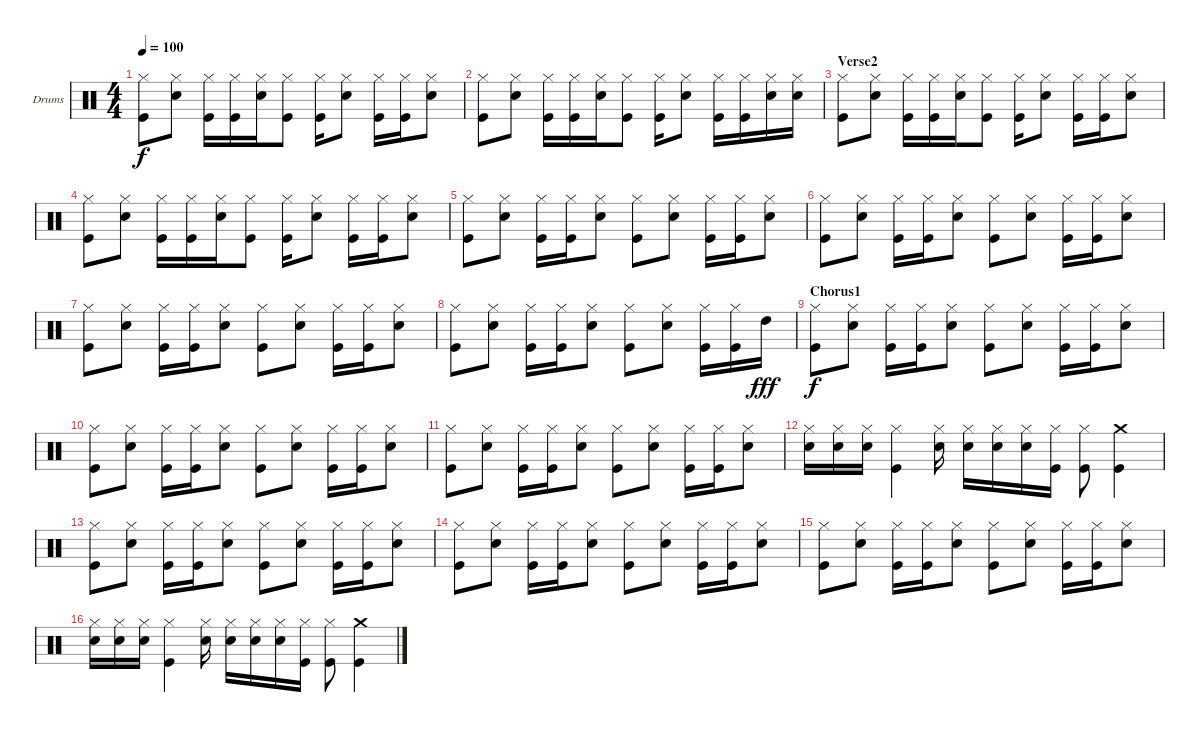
\defaultSystemsLayout 4
\bracketExtendMode groupsimilarinstruments
\firstSystemTrackNameOrientation horizontal
\otherSystemsTrackNameOrientation horizontal
\track ("Drumkit" "Drums") {instrument percussion}
\staff {score}
\articulation defaults
\ts (4 4)
\tempo 100
\clef neutral
\scale
0.333333
\ks c
("Hi-Hat (closed)" "Kick (hit)").8{dy f} ("Hi-Hat (closed)" "Snare (hit) 2").8 ("Hi-Hat (closed)" "Kick (hit)").16 ("Hi-Hat (closed)" "Kick (hit)").16 ("Hi-Hat (closed)" "Snare (hit) 2").16 ("Hi-Hat (closed)" "Kick (hit)").8 ("Hi-Hat (closed)" "Kick (hit)").16 ("Hi-Hat (closed)" "Snare (hit) 2").8 ("Hi-Hat (closed)" "Kick (hit)").16 ("Hi-Hat (closed)" "Kick (hit)").16 ("Hi-Hat (closed)" "Snare (hit) 2").8 |
\scale
0.333333 ("Hi-Hat (closed)" "Kick (hit)").8 ("Hi-Hat (closed)" "Snare (hit) 2").8 ("Hi-Hat (closed)" "Kick (hit)").16 ("Hi-Hat (closed)" "Kick (hit)").16 ("Hi-Hat (closed)" "Snare (hit) 2").16 ("Hi-Hat (closed)" "Kick (hit)").8 ("Hi-Hat (closed)" "Kick (hit)").16 ("Hi-Hat (closed)" "Snare (hit) 2").8 ("Hi-Hat (closed)" "Kick (hit)").16 ("Hi-Hat (closed)" "Kick (hit)").16 ("Hi-Hat (closed)" "Snare (hit) 2").16 ("Hi-Hat (closed)" "Snare (hit) 2").16 |
\section ("" "Verse2")
\scale
0.333333 ("Hi-Hat (closed)" "Kick (hit)").8 ("Hi-Hat (closed)" "Snare (hit) 2").8 ("Hi-Hat (closed)" "Kick (hit)").16 ("Hi-Hat (closed)" "Kick (hit)").16 ("Hi-Hat (closed)" "Snare (hit) 2").16 ("Hi-Hat (closed)" "Kick (hit)").8 ("Hi-Hat (closed)" "Kick (hit)").16 ("Hi-Hat (closed)" "Snare (hit) 2").8 ("Hi-Hat (closed)" "Kick (hit)").16 ("Hi-Hat (closed)" "Kick (hit)").16 ("Hi-Hat (closed)" "Snare (hit) 2").8 |
\scale
0.333333 ("Hi-Hat (closed)" "Kick (hit)").8 ("Hi-Hat (closed)" "Snare (hit) 2").8 ("Hi-Hat (closed)" "Kick (hit)").16 ("Hi-Hat (closed)" "Kick (hit)").16 ("Hi-Hat (closed)" "Snare (hit) 2").16 ("Hi-Hat (closed)" "Kick (hit)").8 ("Hi-Hat (closed)" "Kick (hit)").16 ("Hi-Hat (closed)" "Snare (hit) 2").8 ("Hi-Hat (closed)" "Kick (hit)").16 ("Hi-Hat (closed)" "Kick (hit)").16 ("Hi-Hat (closed)" "Snare (hit) 2").8 |
\scale
0.333333 ("Hi-Hat (closed)" "Kick (hit)").8 ("Hi-Hat (closed)" "Snare (hit) 2").8 ("Hi-Hat (closed)" "Kick (hit)").16 ("Hi-Hat (closed)" "Kick (hit)").16 ("Hi-Hat (closed)" "Snare (hit) 2").8 ("Hi-Hat (closed)" "Kick (hit)").8 ("Hi-Hat (closed)" "Snare (hit) 2").8 ("Hi-Hat (closed)" "Kick (hit)").16 ("Hi-Hat (closed)" "Kick (hit)").16 ("Hi-Hat (closed)" "Snare (hit) 2").8 |
\scale
0.333333 ("Hi-Hat (closed)" "Kick (hit)").8 ("Hi-Hat (closed)" "Snare (hit) 2").8 ("Hi-Hat (closed)" "Kick (hit)").16 ("Hi-Hat (closed)" "Kick (hit)").16 ("Hi-Hat (closed)" "Snare (hit) 2").8 ("Hi-Hat (closed)" "Kick (hit)").8 ("Hi-Hat (closed)" "Snare (hit) 2").8 ("Hi-Hat (closed)" "Kick (hit)").16 ("Hi-Hat (closed)" "Kick (hit)").16 ("Hi-Hat (closed)" "Snare (hit) 2").8 |
\scale
0.333333 ("Hi-Hat (closed)" "Kick (hit)").8 ("Hi-Hat (closed)" "Snare (hit) 2").8 ("Hi-Hat (closed)" "Kick (hit)").16 ("Hi-Hat (closed)" "Kick (hit)").16 ("Hi-Hat (closed)" "Snare (hit) 2").8 ("Hi-Hat (closed)" "Kick (hit)").8 ("Hi-Hat (closed)" "Snare (hit) 2").8 ("Hi-Hat (closed)" "Kick (hit)").16 ("Hi-Hat (closed)" "Kick (hit)").16 ("Hi-Hat (closed)" "Snare (hit) 2").8 |
\scale
0.333333 ("Hi-Hat (closed)" "Kick (hit)").8 ("Hi-Hat (closed)" "Snare (hit) 2").8 ("Hi-Hat (closed)" "Kick (hit)").16 ("Hi-Hat (closed)" "Kick (hit)").16 ("Hi-Hat (closed)" "Snare (hit) 2").8 ("Hi-Hat (closed)" "Kick (hit)").8 ("Hi-Hat (closed)" "Snare (hit) 2").8 ("Hi-Hat (closed)" "Kick (hit)").16 ("Hi-Hat (closed)" "Kick (hit)").16 "High Tom (hit)".16{dy fff} |
\section ("" "Chorus1")
\scale
0.333333 ("Hi-Hat (closed)" "Kick (hit)").8{dy f} ("Hi-Hat (closed)" "Snare (hit) 2").8 ("Hi-Hat (closed)" "Kick (hit)").16 ("Hi-Hat (closed)" "Kick (hit)").16 ("Hi-Hat (closed)" "Snare (hit) 2").8 ("Hi-Hat (closed)" "Kick (hit)").8 ("Hi-Hat (closed)" "Snare (hit) 2").8 ("Hi-Hat (closed)" "Kick (hit)").16 ("Hi-Hat (closed)" "Kick (hit)").16 ("Hi-Hat (closed)" "Snare (hit) 2").8 |
\scale
0.333333 ("Hi-Hat (closed)" "Kick (hit)").8 ("Hi-Hat (closed)" "Snare (hit) 2").8 ("Hi-Hat (closed)" "Kick (hit)").16 ("Hi-Hat (closed)" "Kick (hit)").16 ("Hi-Hat (closed)" "Snare (hit) 2").8 ("Hi-Hat (closed)" "Kick (hit)").8 ("Hi-Hat (closed)" "Snare (hit) 2").8 ("Hi-Hat (closed)" "Kick (hit)").16 ("Hi-Hat (closed)" "Kick (hit)").16 ("Hi-Hat (closed)" "Snare (hit) 2").8 |
\scale
0.333333 ("Hi-Hat (closed)" "Kick (hit)").8 ("Hi-Hat (closed)" "Snare (hit) 2").8 ("Hi-Hat (closed)" "Kick (hit)").16 ("Hi-Hat (closed)" "Kick (hit)").16 ("Hi-Hat (closed)" "Snare (hit) 2").8 ("Hi-Hat (closed)" "Kick (hit)").8 ("Hi-Hat (closed)" "Snare (hit) 2").8 ("Hi-Hat (closed)" "Kick (hit)").16 ("Hi-Hat (closed)" "Kick (hit)").16 ("Hi-Hat (closed)" "Snare (hit) 2").8 |
\scale
0.333333 ("Hi-Hat (closed)" "Snare (hit) 2").16 ("Hi-Hat (closed)" "Snare (hit) 2").16 ("Hi-Hat (closed)" "Snare (hit) 2").16 ("Hi-Hat (closed)" "Kick (hit)").4 ("Hi-Hat (closed)" "Snare (hit) 2").16 ("Hi-Hat (closed)" "Snare (hit) 2").16 ("Hi-Hat (closed)" "Snare (hit) 2").16 ("Hi-Hat (closed)" "Snare (hit) 2").16 ("Hi-Hat (closed)" "Kick (hit)").16 ("Hi-Hat (closed)" "Kick (hit)").8 ("Crash medium (hit)" "Kick (hit)").4 |
\scale
0.333333 ("Hi-Hat (closed)" "Kick (hit)").8 ("Hi-Hat (closed)" "Snare (hit) 2").8 ("Hi-Hat (closed)" "Kick (hit)").16 ("Hi-Hat (closed)" "Kick (hit)").16 ("Hi-Hat (closed)" "Snare (hit) 2").8 ("Hi-Hat (closed)" "Kick (hit)").8 ("Hi-Hat (closed)" "Snare (hit) 2").8 ("Hi-Hat (closed)" "Kick (hit)").16 ("Hi-Hat (closed)" "Kick (hit)").16 ("Hi-Hat (closed)" "Snare (hit) 2").8 |
\scale
0.333333 ("Hi-Hat (closed)" "Kick (hit)").8 ("Hi-Hat (closed)" "Snare (hit) 2").8 ("Hi-Hat (closed)" "Kick (hit)").16 ("Hi-Hat (closed)" "Kick (hit)").16 ("Hi-Hat (closed)" "Snare (hit) 2").8 ("Hi-Hat (closed)" "Kick (hit)").8 ("Hi-Hat (closed)" "Snare (hit) 2").8 ("Hi-Hat (closed)" "Kick (hit)").16 ("Hi-Hat (closed)" "Kick (hit)").16 ("Hi-Hat (closed)" "Snare (hit) 2").8 |
\scale
0.333333 ("Hi-Hat (closed)" "Kick (hit)").8 ("Hi-Hat (closed)" "Snare (hit) 2").8 ("Hi-Hat (closed)" "Kick (hit)").16 ("Hi-Hat (closed)" "Kick (hit)").16 ("Hi-Hat (closed)" "Snare (hit) 2").8 ("Hi-Hat (closed)" "Kick (hit)").8 ("Hi-Hat (closed)" "Snare (hit) 2").8 ("Hi-Hat (closed)" "Kick (hit)").16 ("Hi-Hat (closed)" "Kick (hit)").16 ("Hi-Hat (closed)" "Snare (hit) 2").8 |
\scale
0.333333 ("Hi-Hat (closed)" "Snare (hit) 2").16 ("Hi-Hat (closed)" "Snare (hit) 2").16 ("Hi-Hat (closed)" "Snare (hit) 2").16 ("Hi-Hat (closed)" "Kick (hit)").4 ("Hi-Hat (closed)" "Snare (hit) 2").16 ("Hi-Hat (closed)" "Snare (hit) 2").16 ("Hi-Hat (closed)" "Snare (hit) 2").16 ("Hi-Hat (closed)" "Snare (hit) 2").16 ("Hi-Hat (closed)" "Kick (hit)").16 ("Hi-Hat (closed)" "Kick (hit)").8 ("Crash medium (hit)" "Kick (hit)").4
